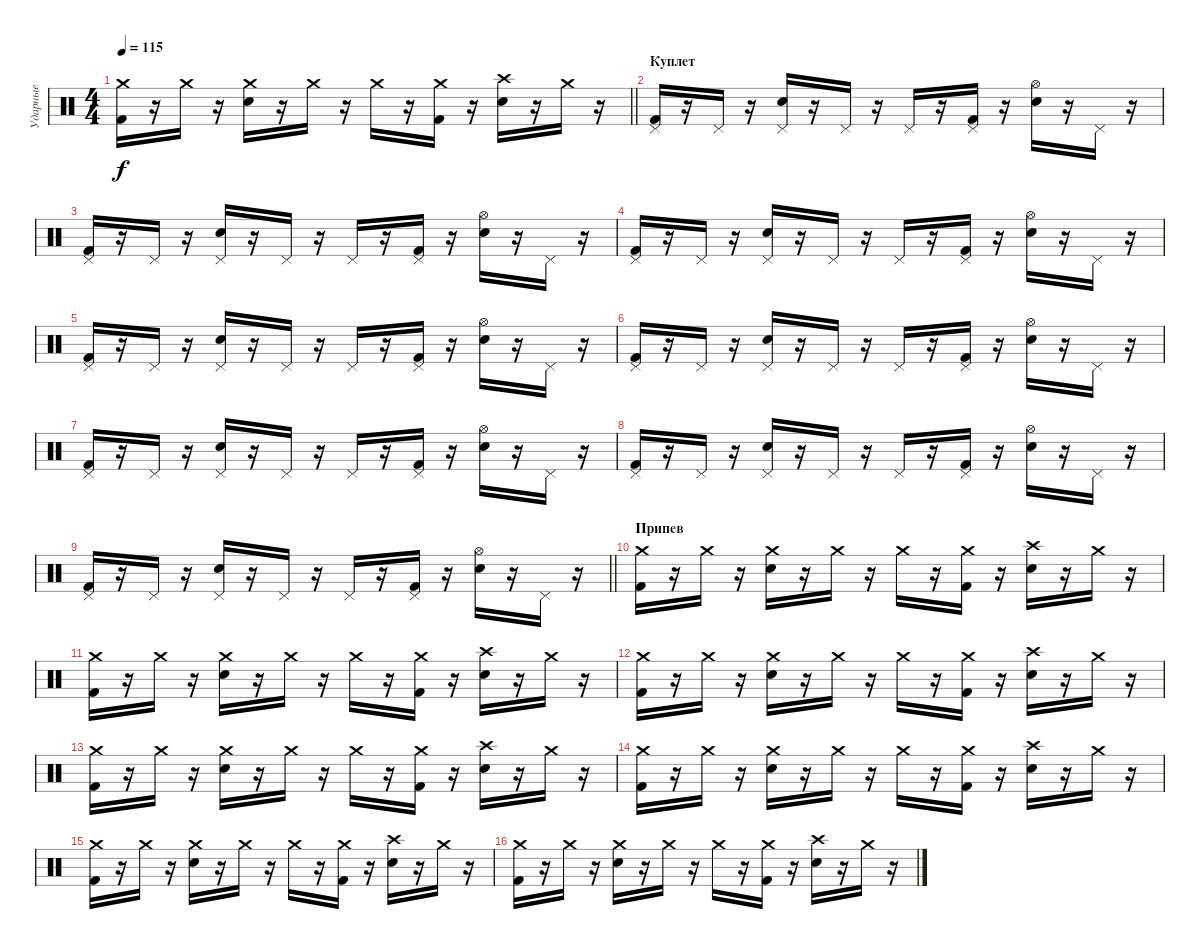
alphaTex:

\track ("Ударные" "Ударные") {instrument percussion}
\staff {score}
\articulation defaults
\ts (4 4)
\tempo 115
\clef neutral
\barLineRight lightlight
\ks c
("Crash medium (hit)" "Kick (hit) 2").16{dy f} r.16 "Crash medium (hit)".16 r.16 ("Crash medium (hit)" "Electric Snare (hit)").16 r.16 "Crash medium (hit)".16 r.16 "Crash medium (hit)".16 r.16 ("Crash medium (hit)" "Kick (hit) 2").16 r.16 ("Crash high (hit)" "Electric Snare (hit)").16 r.16 "Crash medium (hit)".16 r.16 |
\section ("" "Куплет")
("Pedal Hi-Hat (hit)" "Kick (hit) 2").16 r.16 "Pedal Hi-Hat (hit)".16 r.16 ("Pedal Hi-Hat (hit)" "Electric Snare (hit)").16 r.16 "Pedal Hi-Hat (hit)".16 r.16 "Pedal Hi-Hat (hit)".16 r.16 ("Pedal Hi-Hat (hit)" "Kick (hit) 2").16 r.16 ("Hi-Hat (open)" "Electric Snare (hit)").16 r.16 "Pedal Hi-Hat (hit)".16 r.16 |
("Pedal Hi-Hat (hit)" "Kick (hit) 2").16 r.16 "Pedal Hi-Hat (hit)".16 r.16 ("Pedal Hi-Hat (hit)" "Electric Snare (hit)").16 r.16 "Pedal Hi-Hat (hit)".16 r.16 "Pedal Hi-Hat (hit)".16 r.16 ("Pedal Hi-Hat (hit)" "Kick (hit) 2").16 r.16 ("Hi-Hat (open)" "Electric Snare (hit)").16 r.16 "Pedal Hi-Hat (hit)".16 r.16 |
("Pedal Hi-Hat (hit)" "Kick (hit) 2").16 r.16 "Pedal Hi-Hat (hit)".16 r.16 ("Pedal Hi-Hat (hit)" "Electric Snare (hit)").16 r.16 "Pedal Hi-Hat (hit)".16 r.16 "Pedal Hi-Hat (hit)".16 r.16 ("Pedal Hi-Hat (hit)" "Kick (hit) 2").16 r.16 ("Hi-Hat (open)" "Electric Snare (hit)").16 r.16 "Pedal Hi-Hat (hit)".16 r.16 |
("Pedal Hi-Hat (hit)" "Kick (hit) 2").16 r.16 "Pedal Hi-Hat (hit)".16 r.16 ("Pedal Hi-Hat (hit)" "Electric Snare (hit)").16 r.16 "Pedal Hi-Hat (hit)".16 r.16 "Pedal Hi-Hat (hit)".16 r.16 ("Pedal Hi-Hat (hit)" "Kick (hit) 2").16 r.16 ("Hi-Hat (open)" "Electric Snare (hit)").16 r.16 "Pedal Hi-Hat (hit)".16 r.16 |
("Pedal Hi-Hat (hit)" "Kick (hit) 2").16 r.16 "Pedal Hi-Hat (hit)".16 r.16 ("Pedal Hi-Hat (hit)" "Electric Snare (hit)").16 r.16 "Pedal Hi-Hat (hit)".16 r.16 "Pedal Hi-Hat (hit)".16 r.16 ("Pedal Hi-Hat (hit)" "Kick (hit) 2").16 r.16 ("Hi-Hat (open)" "Electric Snare (hit)").16 r.16 "Pedal Hi-Hat (hit)".16 r.16 |
("Pedal Hi-Hat (hit)" "Kick (hit) 2").16 r.16 "Pedal Hi-Hat (hit)".16 r.16 ("Pedal Hi-Hat (hit)" "Electric Snare (hit)").16 r.16 "Pedal Hi-Hat (hit)".16 r.16 "Pedal Hi-Hat (hit)".16 r.16 ("Pedal Hi-Hat (hit)" "Kick (hit) 2").16 r.16 ("Hi-Hat (open)" "Electric Snare (hit)").16 r.16 "Pedal Hi-Hat (hit)".16 r.16 |
("Pedal Hi-Hat (hit)" "Kick (hit) 2").16 r.16 "Pedal Hi-Hat (hit)".16 r.16 ("Pedal Hi-Hat (hit)" "Electric Snare (hit)").16 r.16 "Pedal Hi-Hat (hit)".16 r.16 "Pedal Hi-Hat (hit)".16 r.16 ("Pedal Hi-Hat (hit)" "Kick (hit) 2").16 r.16 ("Hi-Hat (open)" "Electric Snare (hit)").16 r.16 "Pedal Hi-Hat (hit)".16 r.16 |
\barLineRight lightlight
("Pedal Hi-Hat (hit)" "Kick (hit) 2").16 r.16 "Pedal Hi-Hat (hit)".16 r.16 ("Pedal Hi-Hat (hit)" "Electric Snare (hit)").16 r.16 "Pedal Hi-Hat (hit)".16 r.16 "Pedal Hi-Hat (hit)".16 r.16 ("Pedal Hi-Hat (hit)" "Kick (hit) 2").16 r.16 ("Hi-Hat (open)" "Electric Snare (hit)").16 r.16 "Pedal Hi-Hat (hit)".16 r.16 |
\section ("" "Припев")
("Crash medium (hit)" "Kick (hit) 2").16 r.16 "Crash medium (hit)".16 r.16 ("Crash medium (hit)" "Electric Snare (hit)").16 r.16 "Crash medium (hit)".16 r.16 "Crash medium (hit)".16 r.16 ("Crash medium (hit)" "Kick (hit) 2").16 r.16 ("Crash high (hit)" "Electric Snare (hit)").16 r.16 "Crash medium (hit)".16 r.16 |
("Crash medium (hit)" "Kick (hit) 2").16 r.16 "Crash medium (hit)".16 r.16 ("Crash medium (hit)" "Electric Snare (hit)").16 r.16 "Crash medium (hit)".16 r.16 "Crash medium (hit)".16 r.16 ("Crash medium (hit)" "Kick (hit) 2").16 r.16 ("Crash high (hit)" "Electric Snare (hit)").16 r.16 "Crash medium (hit)".16 r.16 |
("Crash medium (hit)" "Kick (hit) 2").16 r.16 "Crash medium (hit)".16 r.16 ("Crash medium (hit)" "Electric Snare (hit)").16 r.16 "Crash medium (hit)".16 r.16 "Crash medium (hit)".16 r.16 ("Crash medium (hit)" "Kick (hit) 2").16 r.16 ("Crash high (hit)" "Electric Snare (hit)").16 r.16 "Crash medium (hit)".16 r.16 |
("Crash medium (hit)" "Kick (hit) 2").16 r.16 "Crash medium (hit)".16 r.16 ("Crash medium (hit)" "Electric Snare (hit)").16 r.16 "Crash medium (hit)".16 r.16 "Crash medium (hit)".16 r.16 ("Crash medium (hit)" "Kick (hit) 2").16 r.16 ("Crash high (hit)" "Electric Snare (hit)").16 r.16 "Crash medium (hit)".16 r.16 |
("Crash medium (hit)" "Kick (hit) 2").16 r.16 "Crash medium (hit)".16 r.16 ("Crash medium (hit)" "Electric Snare (hit)").16 r.16 "Crash medium (hit)".16 r.16 "Crash medium (hit)".16 r.16 ("Crash medium (hit)" "Kick (hit) 2").16 r.16 ("Crash high (hit)" "Electric Snare (hit)").16 r.16 "Crash medium (hit)".16 r.16 |
("Crash medium (hit)" "Kick (hit) 2").16 r.16 "Crash medium (hit)".16 r.16 ("Crash medium (hit)" "Electric Snare (hit)").16 r.16 "Crash medium (hit)".16 r.16 "Crash medium (hit)".16 r.16 ("Crash medium (hit)" "Kick (hit) 2").16 r.16 ("Crash high (hit)" "Electric Snare (hit)").16 r.16 "Crash medium (hit)".16 r.16 |
("Crash medium (hit)" "Kick (hit) 2").16 r.16 "Crash medium (hit)".16 r.16 ("Crash medium (hit)" "Electric Snare (hit)").16 r.16 "Crash medium (hit)".16 r.16 "Crash medium (hit)".16 r.16 ("Crash medium (hit)" "Kick (hit) 2").16 r.16 ("Crash high (hit)" "Electric Snare (hit)").16 r.16 "Crash medium (hit)".16 r.16
